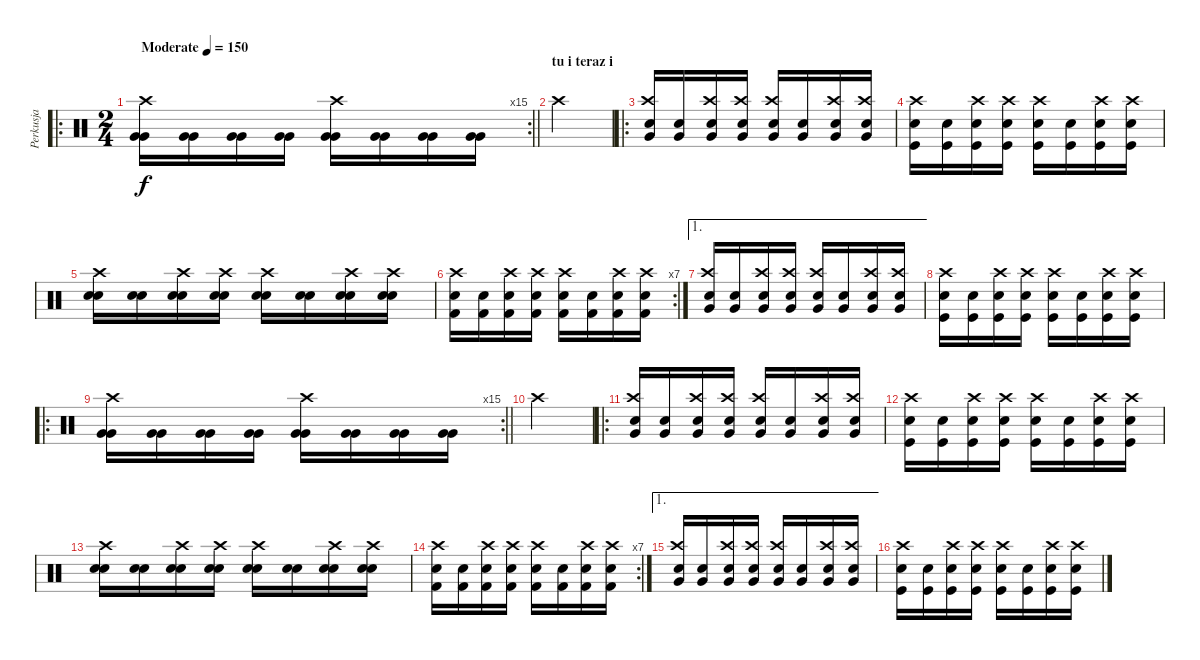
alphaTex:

\track ("Perkusja" "Perkusja") {instrument percussion}
\staff {score}
\articulation defaults
\ro
\rc 15
\ts (2 4)
\tempo (150 "Moderate")
\clef neutral
\barLineRight lightlight
\ks c
("Very Low Tom (hit)" "Crash high (hit)" "Very Low Tom (hit)").16{dy f} ("Very Low Tom (hit)" "Very Low Tom (hit)").16 ("Very Low Tom (hit)" "Very Low Tom (hit)").16 ("Very Low Tom (hit)" "Very Low Tom (hit)").16 ("Very Low Tom (hit)" "Crash high (hit)" "Very Low Tom (hit)").16 ("Very Low Tom (hit)" "Very Low Tom (hit)").16 ("Very Low Tom (hit)" "Very Low Tom (hit)").16 ("Very Low Tom (hit)" "Very Low Tom (hit)").16 |
\section ("" "tu i teraz i")
"Crash high (hit)".2 |
\ro
("Very Low Tom (hit)" "Crash high (hit)" "Electric Snare (hit)").16 ("Very Low Tom (hit)" "Electric Snare (hit)").16 ("Crash high (hit)" "Very Low Tom (hit)" "Electric Snare (hit)").16 ("Crash high (hit)" "Very Low Tom (hit)" "Electric Snare (hit)").16 ("Very Low Tom (hit)" "Crash high (hit)" "Electric Snare (hit)").16 ("Very Low Tom (hit)" "Electric Snare (hit)").16 ("Crash high (hit)" "Very Low Tom (hit)" "Electric Snare (hit)").16 ("Crash high (hit)" "Very Low Tom (hit)" "Electric Snare (hit)").16 |
("Kick (hit)" "Crash high (hit)" "Electric Snare (hit)").16 ("Kick (hit)" "Electric Snare (hit)").16 ("Crash high (hit)" "Kick (hit)" "Electric Snare (hit)").16 ("Crash high (hit)" "Kick (hit)" "Electric Snare (hit)").16 ("Kick (hit)" "Crash high (hit)" "Electric Snare (hit)").16 ("Kick (hit)" "Electric Snare (hit)").16 ("Crash high (hit)" "Kick (hit)" "Electric Snare (hit)").16 ("Crash high (hit)" "Kick (hit)" "Electric Snare (hit)").16 |
("Electric Snare (hit)" "Crash high (hit)" "Electric Snare (hit)").16 ("Electric Snare (hit)" "Electric Snare (hit)").16 ("Crash high (hit)" "Electric Snare (hit)" "Electric Snare (hit)").16 ("Crash high (hit)" "Electric Snare (hit)" "Electric Snare (hit)").16 ("Electric Snare (hit)" "Crash high (hit)" "Electric Snare (hit)").16 ("Electric Snare (hit)" "Electric Snare (hit)").16 ("Crash high (hit)" "Electric Snare (hit)" "Electric Snare (hit)").16 ("Crash high (hit)" "Electric Snare (hit)" "Electric Snare (hit)").16 |
\rc 7
("Kick (hit) 2" "Crash high (hit)" "Electric Snare (hit)").16 ("Kick (hit) 2" "Electric Snare (hit)").16 ("Crash high (hit)" "Kick (hit) 2" "Electric Snare (hit)").16 ("Crash high (hit)" "Kick (hit) 2" "Electric Snare (hit)").16 ("Kick (hit) 2" "Crash high (hit)" "Electric Snare (hit)").16 ("Kick (hit) 2" "Electric Snare (hit)").16 ("Crash high (hit)" "Kick (hit) 2" "Electric Snare (hit)").16 ("Crash high (hit)" "Kick (hit) 2" "Electric Snare (hit)").16 |
\ae 1
("Very Low Tom (hit)" "Crash high (hit)" "Electric Snare (hit)").16 ("Very Low Tom (hit)" "Electric Snare (hit)").16 ("Crash high (hit)" "Very Low Tom (hit)" "Electric Snare (hit)").16 ("Crash high (hit)" "Very Low Tom (hit)" "Electric Snare (hit)").16 ("Very Low Tom (hit)" "Crash high (hit)" "Electric Snare (hit)").16 ("Very Low Tom (hit)" "Electric Snare (hit)").16 ("Crash high (hit)" "Very Low Tom (hit)" "Electric Snare (hit)").16 ("Crash high (hit)" "Very Low Tom (hit)" "Electric Snare (hit)").16 |
("Kick (hit)" "Crash high (hit)" "Electric Snare (hit)").16 ("Kick (hit)" "Electric Snare (hit)").16 ("Crash high (hit)" "Kick (hit)" "Electric Snare (hit)").16 ("Crash high (hit)" "Kick (hit)" "Electric Snare (hit)").16 ("Kick (hit)" "Crash high (hit)" "Electric Snare (hit)").16 ("Kick (hit)" "Electric Snare (hit)").16 ("Crash high (hit)" "Kick (hit)" "Electric Snare (hit)").16 ("Crash high (hit)" "Kick (hit)" "Electric Snare (hit)").16 |
\ro
\rc 15
\barLineRight lightlight
("Very Low Tom (hit)" "Crash high (hit)" "Very Low Tom (hit)").16 ("Very Low Tom (hit)" "Very Low Tom (hit)").16 ("Very Low Tom (hit)" "Very Low Tom (hit)").16 ("Very Low Tom (hit)" "Very Low Tom (hit)").16 ("Very Low Tom (hit)" "Crash high (hit)" "Very Low Tom (hit)").16 ("Very Low Tom (hit)" "Very Low Tom (hit)").16 ("Very Low Tom (hit)" "Very Low Tom (hit)").16 ("Very Low Tom (hit)" "Very Low Tom (hit)").16 |
"Crash high (hit)".2 |
\ro
("Very Low Tom (hit)" "Crash high (hit)" "Electric Snare (hit)").16 ("Very Low Tom (hit)" "Electric Snare (hit)").16 ("Crash high (hit)" "Very Low Tom (hit)" "Electric Snare (hit)").16 ("Crash high (hit)" "Very Low Tom (hit)" "Electric Snare (hit)").16 ("Very Low Tom (hit)" "Crash high (hit)" "Electric Snare (hit)").16 ("Very Low Tom (hit)" "Electric Snare (hit)").16 ("Crash high (hit)" "Very Low Tom (hit)" "Electric Snare (hit)").16 ("Crash high (hit)" "Very Low Tom (hit)" "Electric Snare (hit)").16 |
("Kick (hit)" "Crash high (hit)" "Electric Snare (hit)").16 ("Kick (hit)" "Electric Snare (hit)").16 ("Crash high (hit)" "Kick (hit)" "Electric Snare (hit)").16 ("Crash high (hit)" "Kick (hit)" "Electric Snare (hit)").16 ("Kick (hit)" "Crash high (hit)" "Electric Snare (hit)").16 ("Kick (hit)" "Electric Snare (hit)").16 ("Crash high (hit)" "Kick (hit)" "Electric Snare (hit)").16 ("Crash high (hit)" "Kick (hit)" "Electric Snare (hit)").16 |
("Electric Snare (hit)" "Crash high (hit)" "Electric Snare (hit)").16 ("Electric Snare (hit)" "Electric Snare (hit)").16 ("Crash high (hit)" "Electric Snare (hit)" "Electric Snare (hit)").16 ("Crash high (hit)" "Electric Snare (hit)" "Electric Snare (hit)").16 ("Electric Snare (hit)" "Crash high (hit)" "Electric Snare (hit)").16 ("Electric Snare (hit)" "Electric Snare (hit)").16 ("Crash high (hit)" "Electric Snare (hit)" "Electric Snare (hit)").16 ("Crash high (hit)" "Electric Snare (hit)" "Electric Snare (hit)").16 |
\rc 7
("Kick (hit) 2" "Crash high (hit)" "Electric Snare (hit)").16 ("Kick (hit) 2" "Electric Snare (hit)").16 ("Crash high (hit)" "Kick (hit) 2" "Electric Snare (hit)").16 ("Crash high (hit)" "Kick (hit) 2" "Electric Snare (hit)").16 ("Kick (hit) 2" "Crash high (hit)" "Electric Snare (hit)").16 ("Kick (hit) 2" "Electric Snare (hit)").16 ("Crash high (hit)" "Kick (hit) 2" "Electric Snare (hit)").16 ("Crash high (hit)" "Kick (hit) 2" "Electric Snare (hit)").16 |
\ae 1
("Very Low Tom (hit)" "Crash high (hit)" "Electric Snare (hit)").16 ("Very Low Tom (hit)" "Electric Snare (hit)").16 ("Crash high (hit)" "Very Low Tom (hit)" "Electric Snare (hit)").16 ("Crash high (hit)" "Very Low Tom (hit)" "Electric Snare (hit)").16 ("Very Low Tom (hit)" "Crash high (hit)" "Electric Snare (hit)").16 ("Very Low Tom (hit)" "Electric Snare (hit)").16 ("Crash high (hit)" "Very Low Tom (hit)" "Electric Snare (hit)").16 ("Crash high (hit)" "Very Low Tom (hit)" "Electric Snare (hit)").16 |
("Kick (hit)" "Crash high (hit)" "Electric Snare (hit)").16 ("Kick (hit)" "Electric Snare (hit)").16 ("Crash high (hit)" "Kick (hit)" "Electric Snare (hit)").16 ("Crash high (hit)" "Kick (hit)" "Electric Snare (hit)").16 ("Kick (hit)" "Crash high (hit)" "Electric Snare (hit)").16 ("Kick (hit)" "Electric Snare (hit)").16 ("Crash high (hit)" "Kick (hit)" "Electric Snare (hit)").16 ("Crash high (hit)" "Kick (hit)" "Electric Snare (hit)").16
